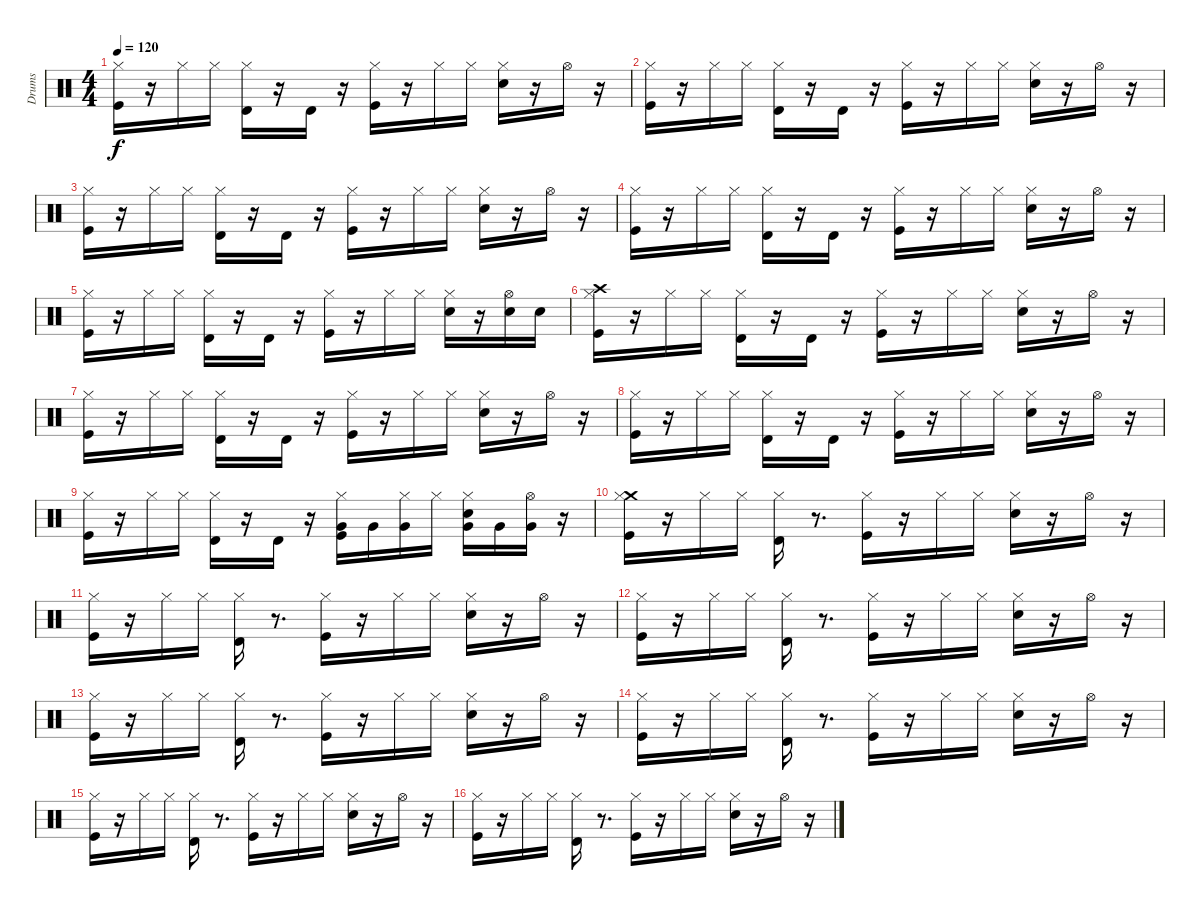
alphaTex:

\track ("Drums" "Drums") {instrument percussion}
\staff {score}
\articulation defaults
\ts (4 4)
\tempo 120
\clef neutral
\ks c
("Hi-Hat (closed)" "Kick (hit)").16{dy f} r.16 "Hi-Hat (closed)".16 "Hi-Hat (closed)".16 ("Hi-Hat (closed)" "Timbale high (hit)").16 r.16 "Timbale high (hit)".16 r.16 ("Hi-Hat (closed)" "Kick (hit)").16 r.16 "Hi-Hat (closed)".16 "Hi-Hat (closed)".16 ("Hi-Hat (closed)" "Snare (hit) 2").16 r.16 "Hi-Hat (open)".16 r.16 |
("Hi-Hat (closed)" "Kick (hit)").16 r.16 "Hi-Hat (closed)".16 "Hi-Hat (closed)".16 ("Hi-Hat (closed)" "Timbale high (hit)").16 r.16 "Timbale high (hit)".16 r.16 ("Hi-Hat (closed)" "Kick (hit)").16 r.16 "Hi-Hat (closed)".16 "Hi-Hat (closed)".16 ("Hi-Hat (closed)" "Snare (hit) 2").16 r.16 "Hi-Hat (open)".16 r.16 |
("Hi-Hat (closed)" "Kick (hit)").16 r.16 "Hi-Hat (closed)".16 "Hi-Hat (closed)".16 ("Hi-Hat (closed)" "Timbale high (hit)").16 r.16 "Timbale high (hit)".16 r.16 ("Hi-Hat (closed)" "Kick (hit)").16 r.16 "Hi-Hat (closed)".16 "Hi-Hat (closed)".16 ("Hi-Hat (closed)" "Snare (hit) 2").16 r.16 "Hi-Hat (open)".16 r.16 |
("Hi-Hat (closed)" "Kick (hit)").16 r.16 "Hi-Hat (closed)".16 "Hi-Hat (closed)".16 ("Hi-Hat (closed)" "Timbale high (hit)").16 r.16 "Timbale high (hit)".16 r.16 ("Hi-Hat (closed)" "Kick (hit)").16 r.16 "Hi-Hat (closed)".16 "Hi-Hat (closed)".16 ("Hi-Hat (closed)" "Snare (hit) 2").16 r.16 "Hi-Hat (open)".16 r.16 |
("Hi-Hat (closed)" "Kick (hit)").16 r.16 "Hi-Hat (closed)".16 "Hi-Hat (closed)".16 ("Hi-Hat (closed)" "Timbale high (hit)").16 r.16 "Timbale high (hit)".16 r.16 ("Hi-Hat (closed)" "Kick (hit)").16 r.16 "Hi-Hat (closed)".16 "Hi-Hat (closed)".16 ("Hi-Hat (closed)" "Snare (hit) 2").16 r.16 ("Snare (hit) 2" "Hi-Hat (open)").16 "Snare (hit) 2".16 |
("Crash high (hit)" "Hi-Hat (closed)" "Kick (hit)").16 r.16 "Hi-Hat (closed)".16 "Hi-Hat (closed)".16 ("Hi-Hat (closed)" "Timbale high (hit)").16 r.16 "Timbale high (hit)".16 r.16 ("Hi-Hat (closed)" "Kick (hit)").16 r.16 "Hi-Hat (closed)".16 "Hi-Hat (closed)".16 ("Hi-Hat (closed)" "Snare (hit) 2").16 r.16 "Hi-Hat (open)".16 r.16 |
("Hi-Hat (closed)" "Kick (hit)").16 r.16 "Hi-Hat (closed)".16 "Hi-Hat (closed)".16 ("Hi-Hat (closed)" "Timbale high (hit)").16 r.16 "Timbale high (hit)".16 r.16 ("Hi-Hat (closed)" "Kick (hit)").16 r.16 "Hi-Hat (closed)".16 "Hi-Hat (closed)".16 ("Hi-Hat (closed)" "Snare (hit) 2").16 r.16 "Hi-Hat (open)".16 r.16 |
("Hi-Hat (closed)" "Kick (hit)").16 r.16 "Hi-Hat (closed)".16 "Hi-Hat (closed)".16 ("Hi-Hat (closed)" "Timbale high (hit)").16 r.16 "Timbale high (hit)".16 r.16 ("Hi-Hat (closed)" "Kick (hit)").16 r.16 "Hi-Hat (closed)".16 "Hi-Hat (closed)".16 ("Hi-Hat (closed)" "Snare (hit) 2").16 r.16 "Hi-Hat (open)".16 r.16 |
("Hi-Hat (closed)" "Kick (hit)").16 r.16 "Hi-Hat (closed)".16 "Hi-Hat (closed)".16 ("Hi-Hat (closed)" "Timbale high (hit)").16 r.16 "Timbale high (hit)".16 r.16 ("Very Low Tom (hit)" "Hi-Hat (closed)" "Kick (hit)").16 "Very Low Tom (hit)".16 ("Very Low Tom (hit)" "Hi-Hat (closed)").16 "Hi-Hat (closed)".16 ("Very Low Tom (hit)" "Hi-Hat (closed)" "Snare (hit) 2").16 "Very Low Tom (hit)".16 ("Very Low Tom (hit)" "Hi-Hat (open)").16 r.16 |
("Crash medium (hit)" "Hi-Hat (closed)" "Kick (hit)").16 r.16 "Hi-Hat (closed)".16 "Hi-Hat (closed)".16 ("Hi-Hat (closed)" "Timbale high (hit)").16 r.8{d} ("Hi-Hat (closed)" "Kick (hit)").16 r.16 "Hi-Hat (closed)".16 "Hi-Hat (closed)".16 ("Hi-Hat (closed)" "Snare (hit) 2").16 r.16 "Hi-Hat (open)".16 r.16 |
("Hi-Hat (closed)" "Kick (hit)").16 r.16 "Hi-Hat (closed)".16 "Hi-Hat (closed)".16 ("Hi-Hat (closed)" "Timbale high (hit)").16 r.8{d} ("Hi-Hat (closed)" "Kick (hit)").16 r.16 "Hi-Hat (closed)".16 "Hi-Hat (closed)".16 ("Hi-Hat (closed)" "Snare (hit) 2").16 r.16 "Hi-Hat (open)".16 r.16 |
("Hi-Hat (closed)" "Kick (hit)").16 r.16 "Hi-Hat (closed)".16 "Hi-Hat (closed)".16 ("Hi-Hat (closed)" "Timbale high (hit)").16 r.8{d} ("Hi-Hat (closed)" "Kick (hit)").16 r.16 "Hi-Hat (closed)".16 "Hi-Hat (closed)".16 ("Hi-Hat (closed)" "Snare (hit) 2").16 r.16 "Hi-Hat (open)".16 r.16 |
("Hi-Hat (closed)" "Kick (hit)").16 r.16 "Hi-Hat (closed)".16 "Hi-Hat (closed)".16 ("Hi-Hat (closed)" "Timbale high (hit)").16 r.8{d} ("Hi-Hat (closed)" "Kick (hit)").16 r.16 "Hi-Hat (closed)".16 "Hi-Hat (closed)".16 ("Hi-Hat (closed)" "Snare (hit) 2").16 r.16 "Hi-Hat (open)".16 r.16 |
("Hi-Hat (closed)" "Kick (hit)").16 r.16 "Hi-Hat (closed)".16 "Hi-Hat (closed)".16 ("Hi-Hat (closed)" "Timbale high (hit)").16 r.8{d} ("Hi-Hat (closed)" "Kick (hit)").16 r.16 "Hi-Hat (closed)".16 "Hi-Hat (closed)".16 ("Hi-Hat (closed)" "Snare (hit) 2").16 r.16 "Hi-Hat (open)".16 r.16 |
("Hi-Hat (closed)" "Kick (hit)").16 r.16 "Hi-Hat (closed)".16 "Hi-Hat (closed)".16 ("Hi-Hat (closed)" "Timbale high (hit)").16 r.8{d} ("Hi-Hat (closed)" "Kick (hit)").16 r.16 "Hi-Hat (closed)".16 "Hi-Hat (closed)".16 ("Hi-Hat (closed)" "Snare (hit) 2").16 r.16 "Hi-Hat (open)".16 r.16 |
("Hi-Hat (closed)" "Kick (hit)").16 r.16 "Hi-Hat (closed)".16 "Hi-Hat (closed)".16 ("Hi-Hat (closed)" "Timbale high (hit)").16 r.8{d} ("Hi-Hat (closed)" "Kick (hit)").16 r.16 "Hi-Hat (closed)".16 "Hi-Hat (closed)".16 ("Hi-Hat (closed)" "Snare (hit) 2").16 r.16 "Hi-Hat (open)".16 r.16
